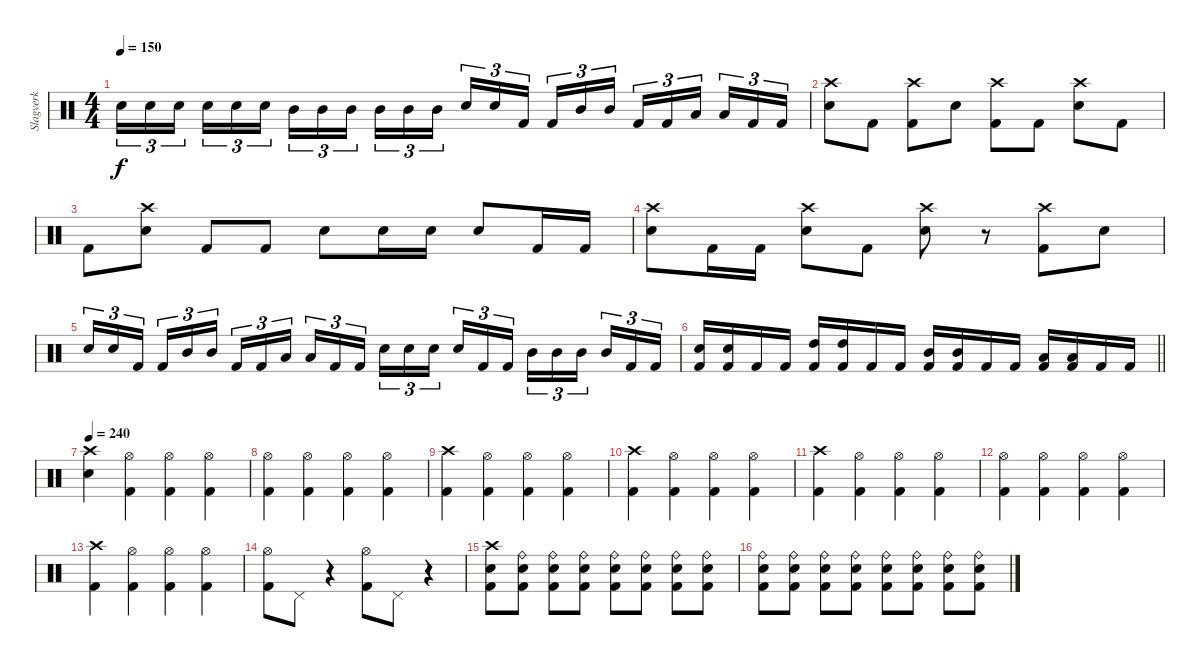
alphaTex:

\track ("Slagverk" "Slagverk") {instrument percussion}
\staff {score}
\articulation defaults
\ts (4 4)
\tempo 150
\clef neutral
\ks c "Electric Snare (hit)".16{tu (3 2) dy f} "Electric Snare (hit)".16{tu (3 2)} "Electric Snare (hit)".16{tu (3 2) beam splitsecondary} "Electric Snare (hit)".16{tu (3 2)} "Electric Snare (hit)".16{tu (3 2)} "Electric Snare (hit)".16{tu (3 2)} "Mid Tom (hit)".16{tu (3 2)} "Mid Tom (hit)".16{tu (3 2)} "Mid Tom (hit)".16{tu (3 2) beam splitsecondary} "Mid Tom (hit)".16{tu (3 2)} "Mid Tom (hit)".16{tu (3 2)} "Mid Tom (hit)".16{tu (3 2)} "Electric Snare (hit)".16{tu (3 2)} "Electric Snare (hit)".16{tu (3 2)} "Kick (hit) 2".16{tu (3 2) beam splitsecondary} "Kick (hit) 2".16{tu (3 2)} "Mid Tom (hit)".16{tu (3 2)} "Mid Tom (hit)".16{tu (3 2)} "Kick (hit) 2".16{tu (3 2)} "Kick (hit) 2".16{tu (3 2)} "Low Tom (hit)".16{tu (3 2) beam splitsecondary} "Low Tom (hit)".16{tu (3 2)} "Kick (hit) 2".16{tu (3 2)} "Kick (hit) 2".16{tu (3 2)}
|
("Crash high (hit)" "Electric Snare (hit)").8 "Kick (hit) 2".8 ("Crash high (hit)" "Kick (hit) 2").8 "Electric Snare (hit)".8 ("Crash high (hit)" "Kick (hit) 2").8 "Kick (hit) 2".8 ("Crash high (hit)" "Electric Snare (hit)").8 "Kick (hit) 2".8 |
"Kick (hit) 2".8 ("Crash high (hit)" "Electric Snare (hit)").8 "Kick (hit) 2".8 "Kick (hit) 2".8 "Electric Snare (hit)".8 "Electric Snare (hit)".16 "Electric Snare (hit)".16 "Electric Snare (hit)".8 "Kick (hit) 2".16 "Kick (hit) 2".16 |
("Crash high (hit)" "Electric Snare (hit)").8 "Kick (hit) 2".16 "Kick (hit) 2".16 ("Crash high (hit)" "Electric Snare (hit)").8 "Kick (hit) 2".8 ("Crash high (hit)" "Electric Snare (hit)").8 r.8 ("Crash high (hit)" "Kick (hit) 2").8 "Electric Snare (hit)".8 |
"Electric Snare (hit)".16{tu (3 2)} "Electric Snare (hit)".16{tu (3 2)} "Kick (hit) 2".16{tu (3 2) beam splitsecondary} "Kick (hit) 2".16{tu (3 2)} "Mid Tom (hit)".16{tu (3 2)} "Mid Tom (hit)".16{tu (3 2)} "Kick (hit) 2".16{tu (3 2)} "Kick (hit) 2".16{tu (3 2)} "Low Tom (hit)".16{tu (3 2) beam splitsecondary} "Low Tom (hit)".16{tu (3 2)} "Kick (hit) 2".16{tu (3 2)} "Kick (hit) 2".16{tu (3 2)} "Electric Snare (hit)".16{tu (3 2)} "Electric Snare (hit)".16{tu (3 2)} "Electric Snare (hit)".16{tu (3 2) beam splitsecondary} "Electric Snare (hit)".16{tu (3 2)} "Kick (hit) 2".16{tu (3 2)} "Kick (hit) 2".16{tu (3 2)} "Mid Tom (hit)".16{tu (3 2)} "Mid Tom (hit)".16{tu (3 2)} "Mid Tom (hit)".16{tu (3 2) beam splitsecondary} "Mid Tom (hit)".16{tu (3 2)} "Kick (hit) 2".16{tu (3 2)} "Kick (hit) 2".16{tu (3 2)} |
\barLineRight lightlight
("Electric Snare (hit)" "Kick (hit) 2").16 ("Electric Snare (hit)" "Kick (hit) 2").16 "Kick (hit) 2".16 "Kick (hit) 2".16 ("High Tom (hit)" "Kick (hit) 2").16 ("High Tom (hit)" "Kick (hit) 2").16 "Kick (hit) 2".16 "Kick (hit) 2".16 ("Mid Tom (hit)" "Kick (hit) 2").16 ("Mid Tom (hit)" "Kick (hit) 2").16 "Kick (hit) 2".16 "Kick (hit) 2".16 ("Low Tom (hit)" "Kick (hit) 2").16 ("Low Tom (hit)" "Kick (hit) 2").16 "Kick (hit) 2".16 "Kick (hit) 2".16 |
\section ("" "")
\tempo 240
("Crash high (hit)" "Electric Snare (hit)").4 ("Hi-Hat (open)" "Kick (hit) 2").4 ("Hi-Hat (open)" "Kick (hit) 2").4 ("Hi-Hat (open)" "Kick (hit) 2").4 |
("Hi-Hat (open)" "Kick (hit) 2").4 ("Hi-Hat (open)" "Kick (hit) 2").4 ("Hi-Hat (open)" "Kick (hit) 2").4 ("Hi-Hat (open)" "Kick (hit) 2").4 |
("Crash high (hit)" "Kick (hit) 2").4 ("Hi-Hat (open)" "Kick (hit) 2").4 ("Hi-Hat (open)" "Kick (hit) 2").4 ("Hi-Hat (open)" "Kick (hit) 2").4 |
("Crash high (hit)" "Kick (hit) 2").4 ("Hi-Hat (open)" "Kick (hit) 2").4 ("Hi-Hat (open)" "Kick (hit) 2").4 ("Hi-Hat (open)" "Kick (hit) 2").4 |
("Crash high (hit)" "Kick (hit) 2").4 ("Hi-Hat (open)" "Kick (hit) 2").4 ("Hi-Hat (open)" "Kick (hit) 2").4 ("Hi-Hat (open)" "Kick (hit) 2").4 |
("Hi-Hat (open)" "Kick (hit) 2").4 ("Hi-Hat (open)" "Kick (hit) 2").4 ("Hi-Hat (open)" "Kick (hit) 2").4 ("Hi-Hat (open)" "Kick (hit) 2").4 |
("Crash high (hit)" "Kick (hit) 2").4 ("Hi-Hat (open)" "Kick (hit) 2").4 ("Hi-Hat (open)" "Kick (hit) 2").4 ("Hi-Hat (open)" "Kick (hit) 2").4 |
("Hi-Hat (open)" "Kick (hit) 2").8 "Pedal Hi-Hat (hit)".8 r.4 ("Hi-Hat (open)" "Kick (hit) 2").8 "Pedal Hi-Hat (hit)".8 r.4 |
("Crash high (hit)" "Electric Snare (hit)" "Kick (hit) 2").8 ("Ride (bell)" "Electric Snare (hit)" "Kick (hit) 2").8 ("Ride (bell)" "Electric Snare (hit)" "Kick (hit) 2").8 ("Ride (bell)" "Electric Snare (hit)" "Kick (hit) 2").8 ("Ride (bell)" "Electric Snare (hit)" "Kick (hit) 2").8 ("Ride (bell)" "Electric Snare (hit)" "Kick (hit) 2").8 ("Ride (bell)" "Electric Snare (hit)" "Kick (hit) 2").8 ("Ride (bell)" "Electric Snare (hit)" "Kick (hit) 2").8 |
("Ride (bell)" "Electric Snare (hit)" "Kick (hit) 2").8 ("Ride (bell)" "Electric Snare (hit)" "Kick (hit) 2").8 ("Ride (bell)" "Electric Snare (hit)" "Kick (hit) 2").8 ("Ride (bell)" "Electric Snare (hit)" "Kick (hit) 2").8 ("Ride (bell)" "Electric Snare (hit)" "Kick (hit) 2").8 ("Ride (bell)" "Electric Snare (hit)" "Kick (hit) 2").8 ("Ride (bell)" "Electric Snare (hit)" "Kick (hit) 2").8 ("Ride (bell)" "Electric Snare (hit)" "Kick (hit) 2").8
